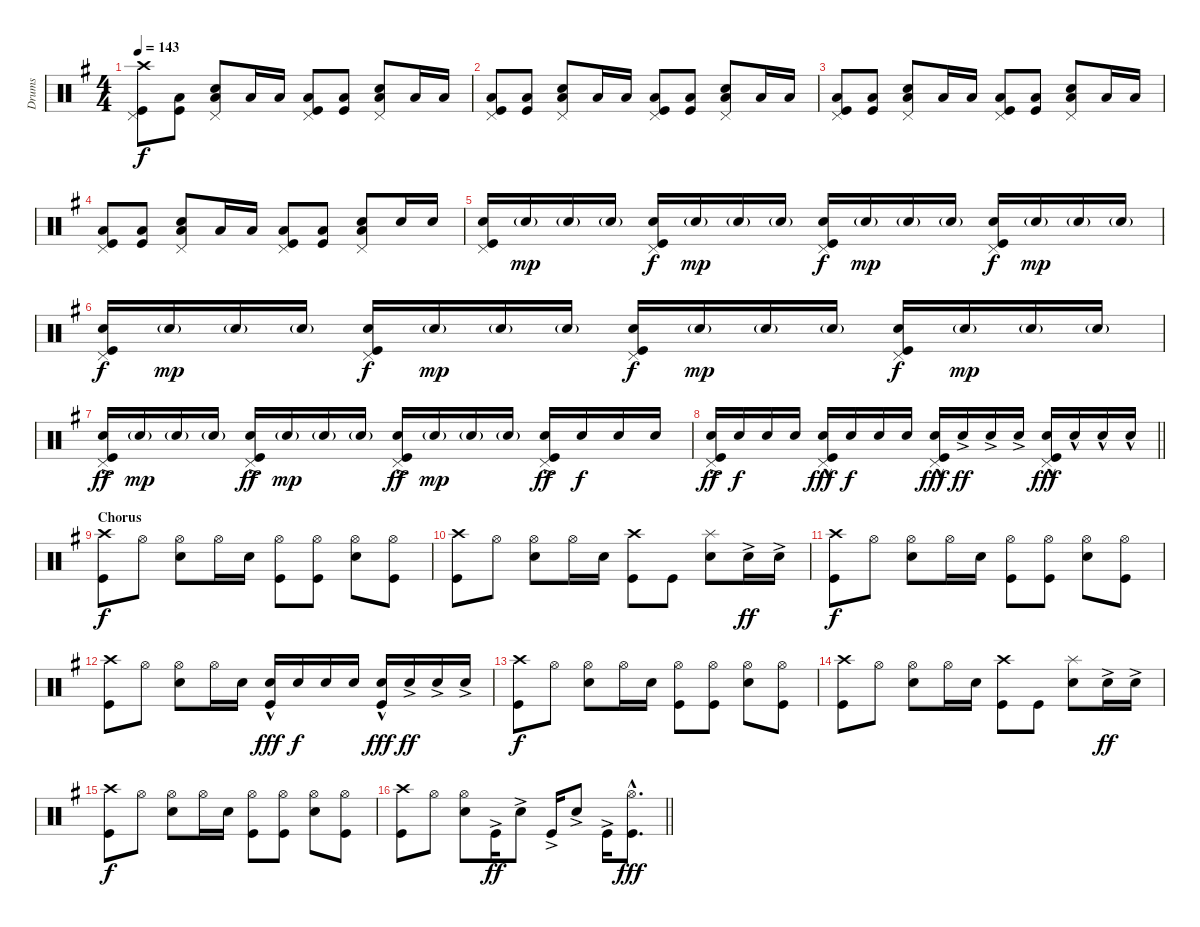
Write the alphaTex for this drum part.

\track ("Drums" "Drums") {instrument percussion}
\staff {score}
\articulation defaults
\ts (4 4)
\tempo 143
\clef neutral
\ks eminor
("Pedal Hi-Hat (hit)" "Kick (hit)" "Crash high (hit)").8{dy f} ("Kick (hit)" "Low Tom (hit)").8 ("Pedal Hi-Hat (hit)" "Snare (hit) 2" "Low Tom (hit)").8 "Low Tom (hit)".16 "Low Tom (hit)".16 ("Pedal Hi-Hat (hit)" "Kick (hit)" "Low Tom (hit)").8 ("Kick (hit)" "Low Tom (hit)").8 ("Pedal Hi-Hat (hit)" "Snare (hit) 2" "Low Tom (hit)").8 "Low Tom (hit)".16 "Low Tom (hit)".16 |
("Pedal Hi-Hat (hit)" "Kick (hit)" "Low Tom (hit)").8 ("Kick (hit)" "Low Tom (hit)").8 ("Pedal Hi-Hat (hit)" "Snare (hit) 2" "Low Tom (hit)").8 "Low Tom (hit)".16 "Low Tom (hit)".16 ("Pedal Hi-Hat (hit)" "Kick (hit)" "Low Tom (hit)").8 ("Kick (hit)" "Low Tom (hit)").8 ("Pedal Hi-Hat (hit)" "Snare (hit) 2" "Low Tom (hit)").8 "Low Tom (hit)".16 "Low Tom (hit)".16 |
("Pedal Hi-Hat (hit)" "Kick (hit)" "Low Tom (hit)").8 ("Kick (hit)" "Low Tom (hit)").8 ("Pedal Hi-Hat (hit)" "Snare (hit) 2" "Low Tom (hit)").8 "Low Tom (hit)".16 "Low Tom (hit)".16 ("Pedal Hi-Hat (hit)" "Kick (hit)" "Low Tom (hit)").8 ("Kick (hit)" "Low Tom (hit)").8 ("Pedal Hi-Hat (hit)" "Snare (hit) 2" "Low Tom (hit)").8 "Low Tom (hit)".16 "Low Tom (hit)".16 |
("Pedal Hi-Hat (hit)" "Kick (hit)" "Low Tom (hit)").8 ("Kick (hit)" "Low Tom (hit)").8 ("Pedal Hi-Hat (hit)" "Snare (hit) 2" "Low Tom (hit)").8 "Low Tom (hit)".16 "Low Tom (hit)".16 ("Pedal Hi-Hat (hit)" "Kick (hit)" "Low Tom (hit)").8 ("Kick (hit)" "Low Tom (hit)").8 ("Pedal Hi-Hat (hit)" "Snare (hit) 2" "Low Tom (hit)").8 "Snare (hit) 2".16 "Snare (hit) 2".16 |
("Pedal Hi-Hat (hit)" "Snare (hit) 2" "Kick (hit)").16 "Snare (hit) 2"{g}.16{dy mp} "Snare (hit) 2"{g}.16 "Snare (hit) 2"{g}.16 ("Pedal Hi-Hat (hit)" "Snare (hit) 2" "Kick (hit)").16{dy f} "Snare (hit) 2"{g}.16{dy mp} "Snare (hit) 2"{g}.16 "Snare (hit) 2"{g}.16 ("Pedal Hi-Hat (hit)" "Snare (hit) 2" "Kick (hit)").16{dy f} "Snare (hit) 2"{g}.16{dy mp} "Snare (hit) 2"{g}.16 "Snare (hit) 2"{g}.16 ("Pedal Hi-Hat (hit)" "Snare (hit) 2" "Kick (hit)").16{dy f} "Snare (hit) 2"{g}.16{dy mp} "Snare (hit) 2"{g}.16 "Snare (hit) 2"{g}.16 |
("Pedal Hi-Hat (hit)" "Snare (hit) 2" "Kick (hit)").16{dy f} "Snare (hit) 2"{g}.16{dy mp} "Snare (hit) 2"{g}.16 "Snare (hit) 2"{g}.16 ("Pedal Hi-Hat (hit)" "Snare (hit) 2" "Kick (hit)").16{dy f} "Snare (hit) 2"{g}.16{dy mp} "Snare (hit) 2"{g}.16 "Snare (hit) 2"{g}.16 ("Pedal Hi-Hat (hit)" "Snare (hit) 2" "Kick (hit)").16{dy f} "Snare (hit) 2"{g}.16{dy mp} "Snare (hit) 2"{g}.16 "Snare (hit) 2"{g}.16 ("Pedal Hi-Hat (hit)" "Snare (hit) 2" "Kick (hit)").16{dy f} "Snare (hit) 2"{g}.16{dy mp} "Snare (hit) 2"{g}.16 "Snare (hit) 2"{g}.16 |
("Pedal Hi-Hat (hit)" "Snare (hit) 2"{ac} "Kick (hit)").16{dy ff} "Snare (hit) 2"{g}.16{dy mp} "Snare (hit) 2"{g}.16 "Snare (hit) 2"{g}.16 ("Pedal Hi-Hat (hit)" "Snare (hit) 2"{ac} "Kick (hit)").16{dy ff} "Snare (hit) 2"{g}.16{dy mp} "Snare (hit) 2"{g}.16 "Snare (hit) 2"{g}.16 ("Pedal Hi-Hat (hit)" "Snare (hit) 2"{ac} "Kick (hit)").16{dy ff} "Snare (hit) 2"{g}.16{dy mp} "Snare (hit) 2"{g}.16 "Snare (hit) 2"{g}.16 ("Pedal Hi-Hat (hit)" "Snare (hit) 2"{ac} "Kick (hit)").16{dy ff} "Snare (hit) 2".16{dy f} "Snare (hit) 2".16 "Snare (hit) 2".16 |
\barLineRight lightlight
("Pedal Hi-Hat (hit)"{ac} "Snare (hit) 2"{ac} "Kick (hit)"{ac}).16{dy ff} "Snare (hit) 2".16{dy f} "Snare (hit) 2".16 "Snare (hit) 2".16 ("Pedal Hi-Hat (hit)"{hac} "Snare (hit) 2"{hac} "Kick (hit)"{hac}).16{dy fff} "Snare (hit) 2".16{dy f} "Snare (hit) 2".16 "Snare (hit) 2".16 ("Pedal Hi-Hat (hit)"{hac} "Snare (hit) 2"{hac} "Kick (hit)"{hac}).16{dy fff} "Snare (hit) 2"{ac}.16{dy ff} "Snare (hit) 2"{ac}.16 "Snare (hit) 2"{ac}.16 ("Pedal Hi-Hat (hit)"{hac} "Snare (hit) 2"{hac} "Kick (hit)"{hac}).16{dy fff} "Snare (hit) 2"{hac}.16 "Snare (hit) 2"{hac}.16 "Snare (hit) 2"{hac}.16 |
\section ("" "Chorus")
("Crash high (hit)" "Kick (hit)").8{dy f} "Hi-Hat (open)".8 ("Hi-Hat (open)" "Snare (hit) 2").8 "Hi-Hat (open)".16 "Snare (hit) 2".16 ("Hi-Hat (open)" "Kick (hit)").8 ("Hi-Hat (open)" "Kick (hit)").8 ("Hi-Hat (open)" "Snare (hit) 2").8 ("Hi-Hat (open)" "Kick (hit)").8 |
("Crash high (hit)" "Kick (hit)").8 "Hi-Hat (open)".8 ("Hi-Hat (open)" "Snare (hit) 2").8 "Hi-Hat (open)".16 "Snare (hit) 2".16 ("Crash high (hit)" "Kick (hit)").8 "Kick (hit)".8 ("Splash (hit)" "Snare (hit) 2").8 "Snare (hit) 2"{ac}.16{dy ff} "Snare (hit) 2"{ac}.16 |
("Crash high (hit)" "Kick (hit)").8{dy f} "Hi-Hat (open)".8 ("Hi-Hat (open)" "Snare (hit) 2").8 "Hi-Hat (open)".16 "Snare (hit) 2".16 ("Hi-Hat (open)" "Kick (hit)").8 ("Hi-Hat (open)" "Kick (hit)").8 ("Hi-Hat (open)" "Snare (hit) 2").8 ("Hi-Hat (open)" "Kick (hit)").8 |
("Crash high (hit)" "Kick (hit)").8 "Hi-Hat (open)".8 ("Hi-Hat (open)" "Snare (hit) 2").8 "Hi-Hat (open)".16 "Snare (hit) 2".16 ("Snare (hit) 2"{hac} "Kick (hit)").16{dy fff} "Snare (hit) 2".16{dy f} "Snare (hit) 2".16 "Snare (hit) 2".16 ("Snare (hit) 2"{hac} "Kick (hit)").16{dy fff} "Snare (hit) 2"{ac}.16{dy ff} "Snare (hit) 2"{ac}.16 "Snare (hit) 2"{ac}.16 |
("Crash high (hit)" "Kick (hit)").8{dy f} "Hi-Hat (open)".8 ("Hi-Hat (open)" "Snare (hit) 2").8 "Hi-Hat (open)".16 "Snare (hit) 2".16 ("Hi-Hat (open)" "Kick (hit)").8 ("Hi-Hat (open)" "Kick (hit)").8 ("Hi-Hat (open)" "Snare (hit) 2").8 ("Hi-Hat (open)" "Kick (hit)").8 |
("Crash high (hit)" "Kick (hit)").8 "Hi-Hat (open)".8 ("Hi-Hat (open)" "Snare (hit) 2").8 "Hi-Hat (open)".16 "Snare (hit) 2".16 ("Crash high (hit)" "Kick (hit)").8 "Kick (hit)".8 ("Splash (hit)" "Snare (hit) 2").8 "Snare (hit) 2"{ac}.16{dy ff} "Snare (hit) 2"{ac}.16 |
("Crash high (hit)" "Kick (hit)").8{dy f} "Hi-Hat (open)".8 ("Hi-Hat (open)" "Snare (hit) 2").8 "Hi-Hat (open)".16 "Snare (hit) 2".16 ("Hi-Hat (open)" "Kick (hit)").8 ("Hi-Hat (open)" "Kick (hit)").8 ("Hi-Hat (open)" "Snare (hit) 2").8 ("Hi-Hat (open)" "Kick (hit)").8 |
\barLineRight lightlight
("Crash high (hit)" "Kick (hit)").8 "Hi-Hat (open)".8 ("Hi-Hat (open)" "Snare (hit) 2").8 "Kick (hit)"{ac}.16{dy ff} "Snare (hit) 2"{ac}.8 "Kick (hit)"{ac}.16 "Snare (hit) 2"{ac}.8 "Kick (hit)"{ac}.16 ("Hi-Hat (open)"{hac} "Kick (hit)"{hac}).8{d dy fff}
